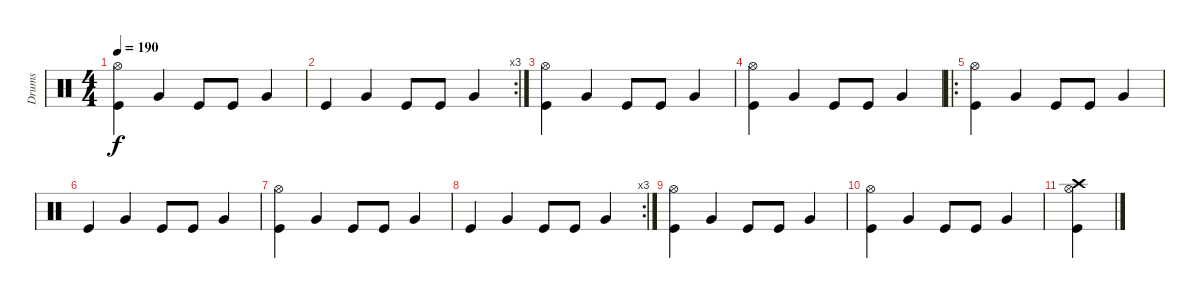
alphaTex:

\track ("Drums" "Drums") {instrument percussion}
\staff {score}
\articulation defaults
\ts (4 4)
\tempo 190
\clef neutral
\ks c
("Hi-Hat (open)" "Kick (hit)").4{dy f} "Very Low Tom (hit)".4 "Kick (hit)".8 "Kick (hit)".8 "Very Low Tom (hit)".4 |
\rc 3 "Kick (hit)".4 "Very Low Tom (hit)".4 "Kick (hit)".8 "Kick (hit)".8 "Very Low Tom (hit)".4
|
("Hi-Hat (open)" "Kick (hit)").4 "Very Low Tom (hit)".4 "Kick (hit)".8 "Kick (hit)".8 "Very Low Tom (hit)".4 |
("Hi-Hat (open)" "Kick (hit)").4 "Very Low Tom (hit)".4 "Kick (hit)".8 "Kick (hit)".8 "Very Low Tom (hit)".4 |
\ro
("Hi-Hat (open)" "Kick (hit)").4 "Very Low Tom (hit)".4 "Kick (hit)".8 "Kick (hit)".8 "Very Low Tom (hit)".4 |
"Kick (hit)".4 "Very Low Tom (hit)".4 "Kick (hit)".8 "Kick (hit)".8 "Very Low Tom (hit)".4 |
("Hi-Hat (open)" "Kick (hit)").4 "Very Low Tom (hit)".4 "Kick (hit)".8 "Kick (hit)".8 "Very Low Tom (hit)".4 |
\rc 3 "Kick (hit)".4 "Very Low Tom (hit)".4 "Kick (hit)".8 "Kick (hit)".8 "Very Low Tom (hit)".4
|
("Hi-Hat (open)" "Kick (hit)").4 "Very Low Tom (hit)".4 "Kick (hit)".8 "Kick (hit)".8 "Very Low Tom (hit)".4 |
("Hi-Hat (open)" "Kick (hit)").4 "Very Low Tom (hit)".4 "Kick (hit)".8 "Kick (hit)".8 "Very Low Tom (hit)".4 |
("Hi-Hat (open)" "Kick (hit)" "Crash high (hit)").4
